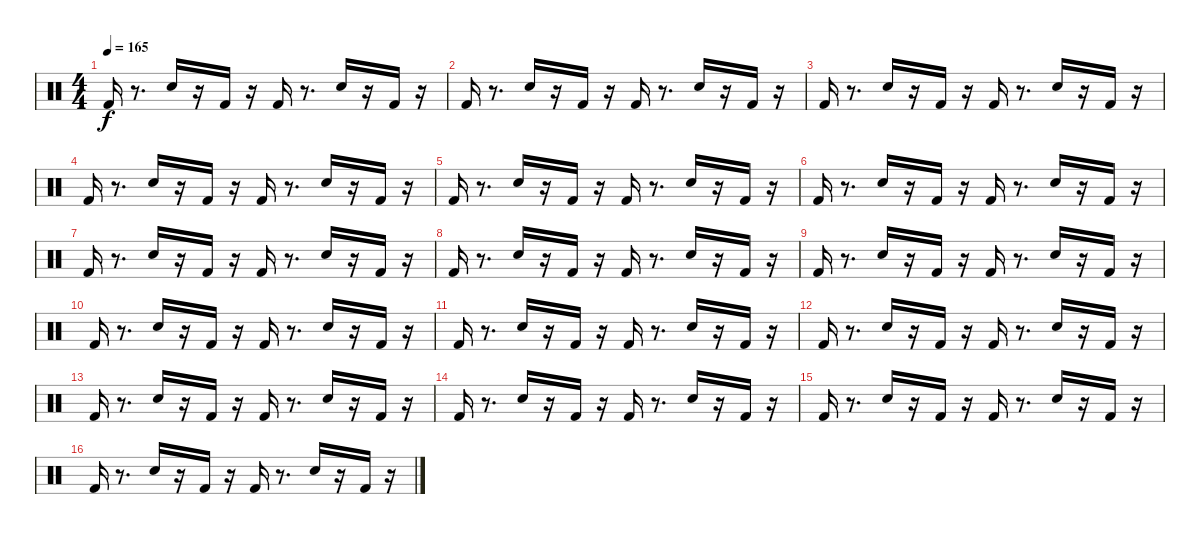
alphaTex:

\track "" {instrument percussion}
\staff {score}
\articulation defaults
\ts (4 4)
\tempo 165
\clef neutral
\ks c "Kick (hit) 2".16{dy f}
r.8{d} "Snare (hit) 2".16 r.16 "Kick (hit) 2".16 r.16 "Kick (hit) 2".16 r.8{d} "Snare (hit) 2".16 r.16 "Kick (hit) 2".16 r.16 |
"Kick (hit) 2".16 r.8{d} "Snare (hit) 2".16 r.16 "Kick (hit) 2".16 r.16 "Kick (hit) 2".16 r.8{d} "Snare (hit) 2".16 r.16 "Kick (hit) 2".16 r.16 |
"Kick (hit) 2".16 r.8{d} "Snare (hit) 2".16 r.16 "Kick (hit) 2".16 r.16 "Kick (hit) 2".16 r.8{d} "Snare (hit) 2".16 r.16 "Kick (hit) 2".16 r.16 |
"Kick (hit) 2".16 r.8{d} "Snare (hit) 2".16 r.16 "Kick (hit) 2".16 r.16 "Kick (hit) 2".16 r.8{d} "Snare (hit) 2".16 r.16 "Kick (hit) 2".16 r.16 |
"Kick (hit) 2".16 r.8{d} "Snare (hit) 2".16 r.16 "Kick (hit) 2".16 r.16 "Kick (hit) 2".16 r.8{d} "Snare (hit) 2".16 r.16 "Kick (hit) 2".16 r.16 |
"Kick (hit) 2".16 r.8{d} "Snare (hit) 2".16 r.16 "Kick (hit) 2".16 r.16 "Kick (hit) 2".16 r.8{d} "Snare (hit) 2".16 r.16 "Kick (hit) 2".16 r.16 |
"Kick (hit) 2".16 r.8{d} "Snare (hit) 2".16 r.16 "Kick (hit) 2".16 r.16 "Kick (hit) 2".16 r.8{d} "Snare (hit) 2".16 r.16 "Kick (hit) 2".16 r.16 |
"Kick (hit) 2".16 r.8{d} "Snare (hit) 2".16 r.16 "Kick (hit) 2".16 r.16 "Kick (hit) 2".16 r.8{d} "Snare (hit) 2".16 r.16 "Kick (hit) 2".16 r.16 |
"Kick (hit) 2".16 r.8{d} "Snare (hit) 2".16 r.16 "Kick (hit) 2".16 r.16 "Kick (hit) 2".16 r.8{d} "Snare (hit) 2".16 r.16 "Kick (hit) 2".16 r.16 |
"Kick (hit) 2".16 r.8{d} "Snare (hit) 2".16 r.16 "Kick (hit) 2".16 r.16 "Kick (hit) 2".16 r.8{d} "Snare (hit) 2".16 r.16 "Kick (hit) 2".16 r.16 |
"Kick (hit) 2".16 r.8{d} "Snare (hit) 2".16 r.16 "Kick (hit) 2".16 r.16 "Kick (hit) 2".16 r.8{d} "Snare (hit) 2".16 r.16 "Kick (hit) 2".16 r.16 |
"Kick (hit) 2".16 r.8{d} "Snare (hit) 2".16 r.16 "Kick (hit) 2".16 r.16 "Kick (hit) 2".16 r.8{d} "Snare (hit) 2".16 r.16 "Kick (hit) 2".16 r.16 |
"Kick (hit) 2".16 r.8{d} "Snare (hit) 2".16 r.16 "Kick (hit) 2".16 r.16 "Kick (hit) 2".16 r.8{d} "Snare (hit) 2".16 r.16 "Kick (hit) 2".16 r.16 |
"Kick (hit) 2".16 r.8{d} "Snare (hit) 2".16 r.16 "Kick (hit) 2".16 r.16 "Kick (hit) 2".16 r.8{d} "Snare (hit) 2".16 r.16 "Kick (hit) 2".16 r.16 |
"Kick (hit) 2".16 r.8{d} "Snare (hit) 2".16 r.16 "Kick (hit) 2".16 r.16 "Kick (hit) 2".16 r.8{d} "Snare (hit) 2".16 r.16 "Kick (hit) 2".16 r.16 |
"Kick (hit) 2".16 r.8{d} "Snare (hit) 2".16 r.16 "Kick (hit) 2".16 r.16 "Kick (hit) 2".16 r.8{d} "Snare (hit) 2".16 r.16 "Kick (hit) 2".16 r.16
